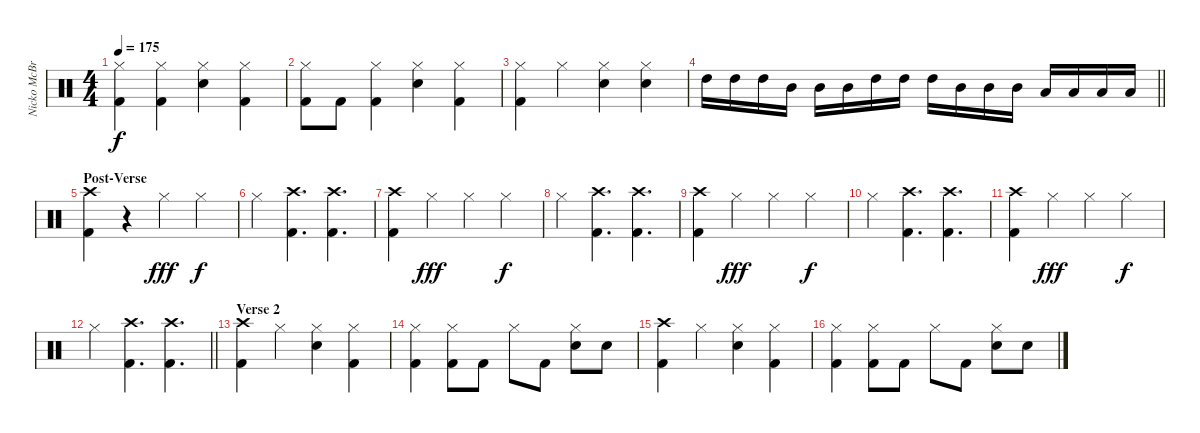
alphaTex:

\track ("Nicko McBrian" "Nicko McBr") {instrument percussion}
\staff {score}
\articulation defaults
\ts (4 4)
\tempo 175
\clef neutral
\ks c
("Hi-Hat (closed)" "Kick (hit) 2").4{dy f} ("Hi-Hat (closed)" "Kick (hit) 2").4 ("Hi-Hat (closed)" "Electric Snare (hit)").4 ("Hi-Hat (closed)" "Kick (hit) 2").4 |
("Hi-Hat (closed)" "Kick (hit) 2").8 "Kick (hit) 2".8 ("Hi-Hat (closed)" "Kick (hit) 2").4 ("Hi-Hat (closed)" "Electric Snare (hit)").4 ("Hi-Hat (closed)" "Kick (hit) 2").4 |
("Hi-Hat (closed)" "Kick (hit) 2").4 "Hi-Hat (closed)".4 ("Hi-Hat (closed)" "Electric Snare (hit)").4 ("Hi-Hat (closed)" "Electric Snare (hit)").4 |
\barLineRight lightlight "High Tom (hit)".16 "High Tom (hit)".16 "High Tom (hit)".16 "Mid Tom (hit)".16 "Mid Tom (hit)".16 "Mid Tom (hit)".16 "High Tom (hit)".16 "High Tom (hit)".16 "High Tom (hit)".16 "Mid Tom (hit)".16 "Mid Tom (hit)".16 "Mid Tom (hit)".16 "Low Tom (hit)".16 "Low Tom (hit)".16 "Low Tom (hit)".16 "Low Tom (hit)".16
|
\section ("" "Post-Verse")
("Crash high (hit)" "Kick (hit) 2").4 r.4 "Hi-Hat (closed)".4{dy fff} "Hi-Hat (closed)".4{dy f} |
"Hi-Hat (closed)".4 ("Crash high (hit)" "Kick (hit) 2").4{d} ("Crash high (hit)" "Kick (hit) 2").4{d} |
("Crash high (hit)" "Kick (hit) 2").4 "Hi-Hat (closed)".4{dy fff} "Hi-Hat (closed)".4 "Hi-Hat (closed)".4{dy f} |
"Hi-Hat (closed)".4 ("Crash high (hit)" "Kick (hit) 2").4{d} ("Crash high (hit)" "Kick (hit) 2").4{d} |
("Crash high (hit)" "Kick (hit) 2").4 "Hi-Hat (closed)".4{dy fff} "Hi-Hat (closed)".4 "Hi-Hat (closed)".4{dy f} |
"Hi-Hat (closed)".4 ("Crash high (hit)" "Kick (hit) 2").4{d} ("Crash high (hit)" "Kick (hit) 2").4{d} |
("Crash high (hit)" "Kick (hit) 2").4 "Hi-Hat (closed)".4{dy fff} "Hi-Hat (closed)".4 "Hi-Hat (closed)".4{dy f} |
\barLineRight lightlight "Hi-Hat (closed)".4
("Crash high (hit)" "Kick (hit) 2").4{d} ("Crash high (hit)" "Kick (hit) 2").4{d} |
\section ("" "Verse 2")
("Crash high (hit)" "Kick (hit) 2").4 "Hi-Hat (closed)".4 ("Hi-Hat (closed)" "Electric Snare (hit)").4 ("Hi-Hat (closed)" "Kick (hit) 2").4 |
("Hi-Hat (closed)" "Kick (hit) 2").4 ("Hi-Hat (closed)" "Kick (hit) 2").8 "Kick (hit) 2".8 "Hi-Hat (closed)".8 "Kick (hit) 2".8 ("Hi-Hat (closed)" "Electric Snare (hit)").8 "Electric Snare (hit)".8 |
("Crash high (hit)" "Kick (hit) 2").4 "Hi-Hat (closed)".4 ("Hi-Hat (closed)" "Electric Snare (hit)").4 ("Hi-Hat (closed)" "Kick (hit) 2").4 |
("Hi-Hat (closed)" "Kick (hit) 2").4 ("Hi-Hat (closed)" "Kick (hit) 2").8 "Kick (hit) 2".8 "Hi-Hat (closed)".8 "Kick (hit) 2".8 ("Hi-Hat (closed)" "Electric Snare (hit)").8 "Electric Snare (hit)".8
